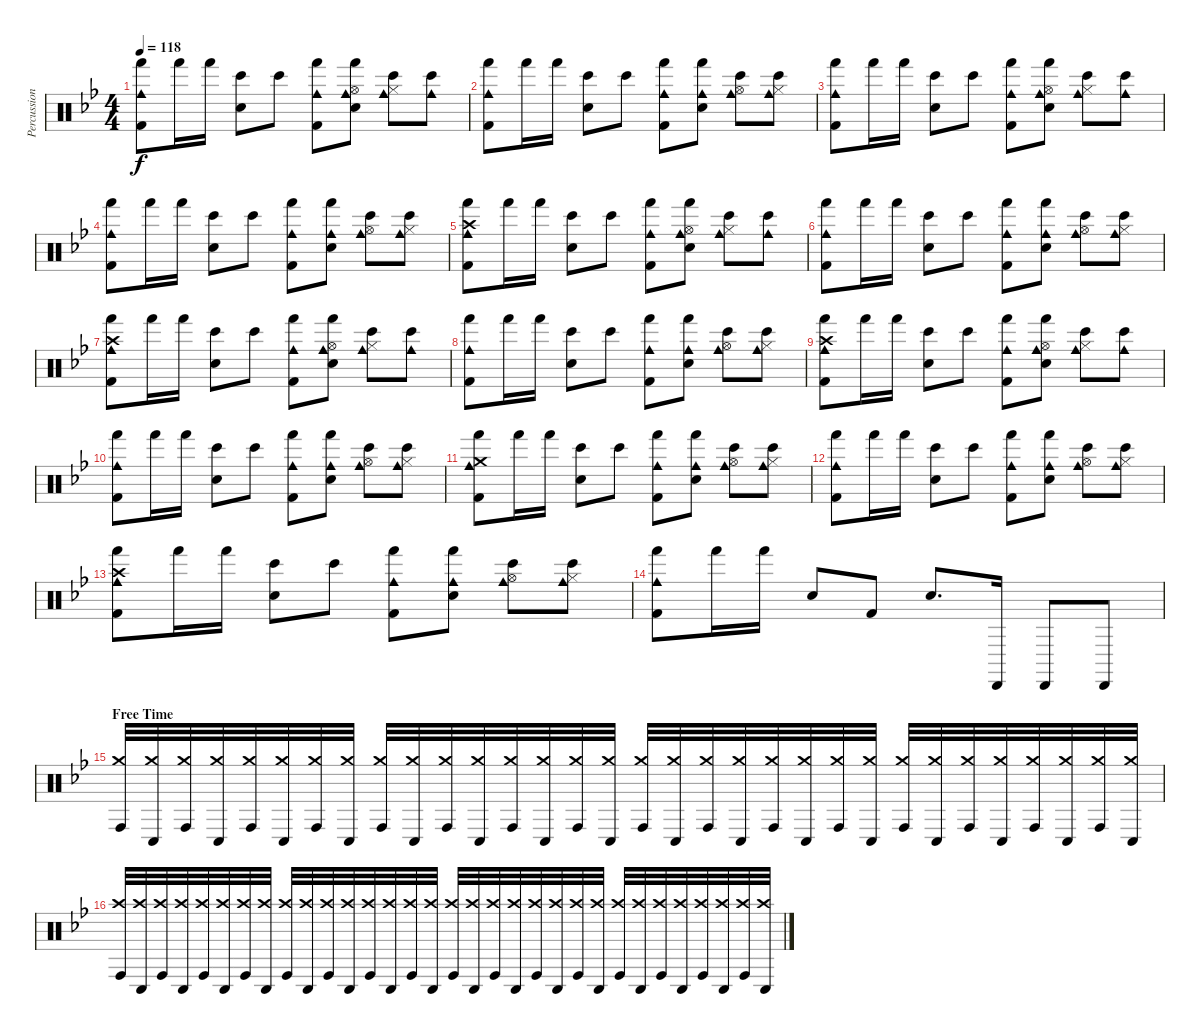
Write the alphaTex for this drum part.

\track ("Percussion" "Percussion") {instrument percussion}
\staff {score}
\articulation defaults
\ts (4 4)
\tempo 118
\clef neutral
\ks gminor
("Cowbell medium (hit)" "Hand (hit)" "Kick (hit) 2").8{dy f} "Hand (hit)".16 "Hand (hit)".16 ("Bongo High (hit)" "Electric Snare (hit)").8 "Bongo High (hit)".8 ("Cowbell medium (hit)" "Hand (hit)" "Kick (hit) 2").8 ("Cowbell medium (hit)" "Hand (hit)" "Electric Snare (hit)" "Hi-Hat (open)").8 ("Cowbell medium (hit)" "Bongo High (hit)" "Hi-Hat (closed)").8 ("Cowbell medium (hit)" "Bongo High (hit)").8 |
("Cowbell medium (hit)" "Hand (hit)" "Kick (hit) 2").8 "Hand (hit)".16 "Hand (hit)".16 ("Bongo High (hit)" "Electric Snare (hit)").8 "Bongo High (hit)".8 ("Cowbell medium (hit)" "Hand (hit)" "Kick (hit) 2").8 ("Cowbell medium (hit)" "Hand (hit)" "Electric Snare (hit)").8 ("Cowbell medium (hit)" "Bongo High (hit)" "Hi-Hat (open)").8 ("Cowbell medium (hit)" "Bongo High (hit)" "Hi-Hat (closed)").8 |
("Cowbell medium (hit)" "Hand (hit)" "Kick (hit) 2").8 "Hand (hit)".16 "Hand (hit)".16 ("Bongo High (hit)" "Electric Snare (hit)").8 "Bongo High (hit)".8 ("Cowbell medium (hit)" "Hand (hit)" "Kick (hit) 2").8 ("Cowbell medium (hit)" "Hand (hit)" "Electric Snare (hit)" "Hi-Hat (open)").8 ("Cowbell medium (hit)" "Bongo High (hit)" "Hi-Hat (closed)").8 ("Cowbell medium (hit)" "Bongo High (hit)").8 |
("Cowbell medium (hit)" "Hand (hit)" "Kick (hit) 2").8 "Hand (hit)".16 "Hand (hit)".16 ("Bongo High (hit)" "Electric Snare (hit)").8 "Bongo High (hit)".8 ("Cowbell medium (hit)" "Hand (hit)" "Kick (hit) 2").8 ("Cowbell medium (hit)" "Hand (hit)" "Electric Snare (hit)").8 ("Cowbell medium (hit)" "Bongo High (hit)" "Hi-Hat (open)").8 ("Cowbell medium (hit)" "Bongo High (hit)" "Hi-Hat (closed)").8 |
("Cowbell medium (hit)" "Hand (hit)" "Crash high (hit)" "Kick (hit) 2").8 "Hand (hit)".16 "Hand (hit)".16 ("Bongo High (hit)" "Electric Snare (hit)").8 "Bongo High (hit)".8 ("Cowbell medium (hit)" "Hand (hit)" "Kick (hit) 2").8 ("Cowbell medium (hit)" "Hand (hit)" "Electric Snare (hit)" "Hi-Hat (open)").8 ("Cowbell medium (hit)" "Bongo High (hit)" "Hi-Hat (closed)").8 ("Cowbell medium (hit)" "Bongo High (hit)").8 |
("Cowbell medium (hit)" "Hand (hit)" "Kick (hit) 2").8 "Hand (hit)".16 "Hand (hit)".16 ("Bongo High (hit)" "Electric Snare (hit)").8 "Bongo High (hit)".8 ("Cowbell medium (hit)" "Hand (hit)" "Kick (hit) 2").8 ("Cowbell medium (hit)" "Hand (hit)" "Electric Snare (hit)").8 ("Cowbell medium (hit)" "Bongo High (hit)" "Hi-Hat (open)").8 ("Cowbell medium (hit)" "Bongo High (hit)" "Hi-Hat (closed)").8 |
("Cowbell medium (hit)" "Hand (hit)" "Crash high (hit)" "Kick (hit) 2").8 "Hand (hit)".16 "Hand (hit)".16 ("Bongo High (hit)" "Electric Snare (hit)").8 "Bongo High (hit)".8 ("Cowbell medium (hit)" "Hand (hit)" "Kick (hit) 2").8 ("Cowbell medium (hit)" "Hand (hit)" "Electric Snare (hit)" "Hi-Hat (open)").8 ("Cowbell medium (hit)" "Bongo High (hit)" "Hi-Hat (closed)").8 ("Cowbell medium (hit)" "Bongo High (hit)").8 |
("Cowbell medium (hit)" "Hand (hit)" "Kick (hit) 2").8 "Hand (hit)".16 "Hand (hit)".16 ("Bongo High (hit)" "Electric Snare (hit)").8 "Bongo High (hit)".8 ("Cowbell medium (hit)" "Hand (hit)" "Kick (hit) 2").8 ("Cowbell medium (hit)" "Hand (hit)" "Electric Snare (hit)").8 ("Cowbell medium (hit)" "Bongo High (hit)" "Hi-Hat (open)").8 ("Cowbell medium (hit)" "Bongo High (hit)" "Hi-Hat (closed)").8 |
("Cowbell medium (hit)" "Hand (hit)" "Crash high (hit)" "Kick (hit) 2").8 "Hand (hit)".16 "Hand (hit)".16 ("Bongo High (hit)" "Electric Snare (hit)").8 "Bongo High (hit)".8 ("Cowbell medium (hit)" "Hand (hit)" "Kick (hit) 2").8 ("Cowbell medium (hit)" "Hand (hit)" "Electric Snare (hit)" "Hi-Hat (open)").8 ("Cowbell medium (hit)" "Bongo High (hit)" "Hi-Hat (closed)").8 ("Cowbell medium (hit)" "Bongo High (hit)").8 |
("Cowbell medium (hit)" "Hand (hit)" "Kick (hit) 2").8 "Hand (hit)".16 "Hand (hit)".16 ("Bongo High (hit)" "Electric Snare (hit)").8 "Bongo High (hit)".8 ("Cowbell medium (hit)" "Hand (hit)" "Kick (hit) 2").8 ("Cowbell medium (hit)" "Hand (hit)" "Electric Snare (hit)").8 ("Cowbell medium (hit)" "Bongo High (hit)" "Hi-Hat (open)").8 ("Cowbell medium (hit)" "Bongo High (hit)" "Hi-Hat (closed)").8 |
("Cowbell medium (hit)" "Hand (hit)" "Crash medium (hit)" "Kick (hit) 2").8 "Hand (hit)".16 "Hand (hit)".16 ("Bongo High (hit)" "Electric Snare (hit)").8 "Bongo High (hit)".8 ("Cowbell medium (hit)" "Hand (hit)" "Kick (hit) 2").8 ("Cowbell medium (hit)" "Hand (hit)" "Electric Snare (hit)").8 ("Cowbell medium (hit)" "Bongo High (hit)" "Hi-Hat (open)").8 ("Cowbell medium (hit)" "Bongo High (hit)" "Hi-Hat (closed)").8 |
("Cowbell medium (hit)" "Hand (hit)" "Kick (hit) 2").8 "Hand (hit)".16 "Hand (hit)".16 ("Bongo High (hit)" "Electric Snare (hit)").8 "Bongo High (hit)".8 ("Cowbell medium (hit)" "Hand (hit)" "Kick (hit) 2").8 ("Cowbell medium (hit)" "Hand (hit)" "Electric Snare (hit)").8 ("Cowbell medium (hit)" "Bongo High (hit)" "Hi-Hat (open)").8 ("Cowbell medium (hit)" "Bongo High (hit)" "Hi-Hat (closed)").8 |
("Cowbell medium (hit)" "Hand (hit)" "Crash high (hit)" "Kick (hit) 2").8 "Hand (hit)".16 "Hand (hit)".16 ("Bongo High (hit)" "Electric Snare (hit)").8 "Bongo High (hit)".8 ("Cowbell medium (hit)" "Hand (hit)" "Kick (hit) 2").8 ("Cowbell medium (hit)" "Hand (hit)" "Electric Snare (hit)").8 ("Cowbell medium (hit)" "Bongo High (hit)" "Hi-Hat (open)").8 ("Cowbell medium (hit)" "Bongo High (hit)" "Hi-Hat (closed)").8 |
("Cowbell medium (hit)" "Hand (hit)" "Kick (hit) 2").8 "Hand (hit)".16 "Hand (hit)".16 "Electric Snare (hit)".8 "Kick (hit) 2".8 "Electric Snare (hit)".8{d} "Cabasa (hit)".16 "Cabasa (hit)".8 "Cabasa (hit)".8 |
\section ("" "Free Time")
("Conga high (hit)" "Crash medium (hit)").32{volume 0} ("Conga low (hit)" "Crash medium (hit)").32{volume 1} ("Conga high (hit)" "Crash medium (hit)").32{volume 2} ("Conga low (hit)" "Crash medium (hit)").32{volume 3} ("Conga high (hit)" "Crash medium (hit)").32{volume 4} ("Conga low (hit)" "Crash medium (hit)").32{volume 5} ("Conga high (hit)" "Crash medium (hit)").32{volume 6} ("Conga low (hit)" "Crash medium (hit)").32{volume 7} ("Conga high (hit)" "Crash medium (hit)").32{volume 8} ("Conga low (hit)" "Crash medium (hit)").32{volume 9} ("Conga high (hit)" "Crash medium (hit)").32{volume 10} ("Conga low (hit)" "Crash medium (hit)").32{volume 11} ("Conga high (hit)" "Crash medium (hit)").32{volume 12} ("Conga low (hit)" "Crash medium (hit)").32{volume 12} ("Conga high (hit)" "Crash medium (hit)").32{volume 12} ("Conga low (hit)" "Crash medium (hit)").32{volume 12} ("Conga high (hit)" "Crash medium (hit)").32{volume 12} ("Conga low (hit)" "Crash medium (hit)").32{volume 12} ("Conga high (hit)" "Crash medium (hit)").32{volume 12} ("Conga low (hit)" "Crash medium (hit)").32{volume 12} ("Conga high (hit)" "Crash medium (hit)").32{volume 11} ("Conga low (hit)" "Crash medium (hit)").32{volume 10} ("Conga high (hit)" "Crash medium (hit)").32{volume 9} ("Conga low (hit)" "Crash medium (hit)").32{volume 8} ("Conga high (hit)" "Crash medium (hit)").32{volume 7} ("Conga low (hit)" "Crash medium (hit)").32{volume 6} ("Conga high (hit)" "Crash medium (hit)").32{volume 5} ("Conga low (hit)" "Crash medium (hit)").32{volume 4} ("Conga high (hit)" "Crash medium (hit)").32{volume 3} ("Conga low (hit)" "Crash medium (hit)").32{volume 2} ("Conga high (hit)" "Crash medium (hit)").32{volume 1} ("Conga low (hit)" "Crash medium (hit)").32{volume 0} |
("Conga high (hit)" "Crash high (hit)").32{volume 0} ("Conga low (hit)" "Crash high (hit)").32{volume 1} ("Conga high (hit)" "Crash high (hit)").32{volume 2} ("Conga low (hit)" "Crash high (hit)").32{volume 3} ("Conga high (hit)" "Crash high (hit)").32{volume 4} ("Conga low (hit)" "Crash high (hit)").32{volume 5} ("Conga high (hit)" "Crash high (hit)").32{volume 6} ("Conga low (hit)" "Crash high (hit)").32{volume 7} ("Conga high (hit)" "Crash high (hit)").32{volume 8} ("Conga low (hit)" "Crash high (hit)").32{volume 9} ("Conga high (hit)" "Crash high (hit)").32{volume 10} ("Conga low (hit)" "Crash high (hit)").32{volume 11} ("Conga high (hit)" "Crash high (hit)").32{volume 12} ("Conga low (hit)" "Crash high (hit)").32{volume 12} ("Conga high (hit)" "Crash high (hit)").32{volume 12} ("Conga low (hit)" "Crash high (hit)").32{volume 12} ("Conga high (hit)" "Crash high (hit)").32{volume 12} ("Conga low (hit)" "Crash high (hit)").32{volume 12} ("Conga high (hit)" "Crash high (hit)").32{volume 12} ("Conga low (hit)" "Crash high (hit)").32{volume 12} ("Conga high (hit)" "Crash high (hit)").32{volume 11} ("Conga low (hit)" "Crash high (hit)").32{volume 10} ("Conga high (hit)" "Crash high (hit)").32{volume 9} ("Conga low (hit)" "Crash high (hit)").32{volume 8} ("Conga high (hit)" "Crash high (hit)").32{volume 7} ("Conga low (hit)" "Crash high (hit)").32{volume 6} ("Conga high (hit)" "Crash high (hit)").32{volume 5} ("Conga low (hit)" "Crash high (hit)").32{volume 4} ("Conga high (hit)" "Crash high (hit)").32{volume 3} ("Conga low (hit)" "Crash high (hit)").32{volume 2} ("Conga high (hit)" "Crash high (hit)").32{volume 1} ("Conga low (hit)" "Crash high (hit)").32{volume 0}
